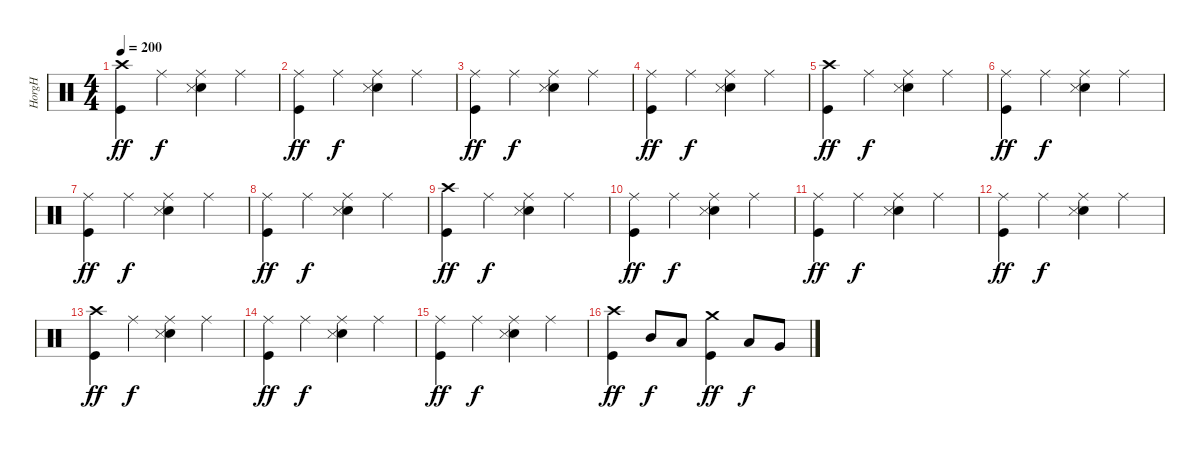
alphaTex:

\track ("HorgH" "HorgH") {instrument percussion}
\staff {score}
\articulation defaults
\ts (4 4)
\section ("" "")
\tempo 200
\clef neutral
\ks c
("Crash high (hit)" "Kick (hit)").4{dy ff} "Ride (middle)".4{dy f} ("Ride (middle)" "Electric Snare (hit)" "Snare (side stick) 3").4 "Ride (middle)".4 |
("Ride (middle)" "Kick (hit)").4{dy ff} "Ride (middle)".4{dy f} ("Ride (middle)" "Electric Snare (hit)" "Snare (side stick) 3").4 "Ride (middle)".4 |
("Ride (middle)" "Kick (hit)").4{dy ff} "Ride (middle)".4{dy f} ("Ride (middle)" "Electric Snare (hit)" "Snare (side stick) 3").4 "Ride (middle)".4 |
("Ride (middle)" "Kick (hit)").4{dy ff} "Ride (middle)".4{dy f} ("Ride (middle)" "Electric Snare (hit)" "Snare (side stick) 3").4 "Ride (middle)".4 |
("Crash high (hit)" "Kick (hit)").4{dy ff} "Ride (middle)".4{dy f} ("Ride (middle)" "Electric Snare (hit)" "Snare (side stick) 3").4 "Ride (middle)".4 |
("Ride (middle)" "Kick (hit)").4{dy ff} "Ride (middle)".4{dy f} ("Ride (middle)" "Electric Snare (hit)" "Snare (side stick) 3").4 "Ride (middle)".4 |
("Ride (middle)" "Kick (hit)").4{dy ff} "Ride (middle)".4{dy f} ("Ride (middle)" "Electric Snare (hit)" "Snare (side stick) 3").4 "Ride (middle)".4 |
("Ride (middle)" "Kick (hit)").4{dy ff} "Ride (middle)".4{dy f} ("Ride (middle)" "Electric Snare (hit)" "Snare (side stick) 3").4 "Ride (middle)".4 |
("Crash high (hit)" "Kick (hit)").4{dy ff} "Ride (middle)".4{dy f} ("Ride (middle)" "Electric Snare (hit)" "Snare (side stick) 3").4 "Ride (middle)".4 |
("Ride (middle)" "Kick (hit)").4{dy ff} "Ride (middle)".4{dy f} ("Ride (middle)" "Electric Snare (hit)" "Snare (side stick) 3").4 "Ride (middle)".4 |
("Ride (middle)" "Kick (hit)").4{dy ff} "Ride (middle)".4{dy f} ("Ride (middle)" "Electric Snare (hit)" "Snare (side stick) 3").4 "Ride (middle)".4 |
("Ride (middle)" "Kick (hit)").4{dy ff} "Ride (middle)".4{dy f} ("Ride (middle)" "Electric Snare (hit)" "Snare (side stick) 3").4 "Ride (middle)".4 |
("Crash high (hit)" "Kick (hit)").4{dy ff} "Ride (middle)".4{dy f} ("Ride (middle)" "Electric Snare (hit)" "Snare (side stick) 3").4 "Ride (middle)".4 |
("Ride (middle)" "Kick (hit)").4{dy ff} "Ride (middle)".4{dy f} ("Ride (middle)" "Electric Snare (hit)" "Snare (side stick) 3").4 "Ride (middle)".4 |
("Ride (middle)" "Kick (hit)").4{dy ff} "Ride (middle)".4{dy f} ("Ride (middle)" "Electric Snare (hit)" "Snare (side stick) 3").4 "Ride (middle)".4 |
("Crash high (hit)" "Kick (hit)").4{dy ff} "Mid Tom (hit)".8{dy f} "Low Tom (hit)".8 ("Crash medium (hit)" "Kick (hit)").4{dy ff} "Low Tom (hit)".8{dy f} "Very Low Tom (hit)".8
